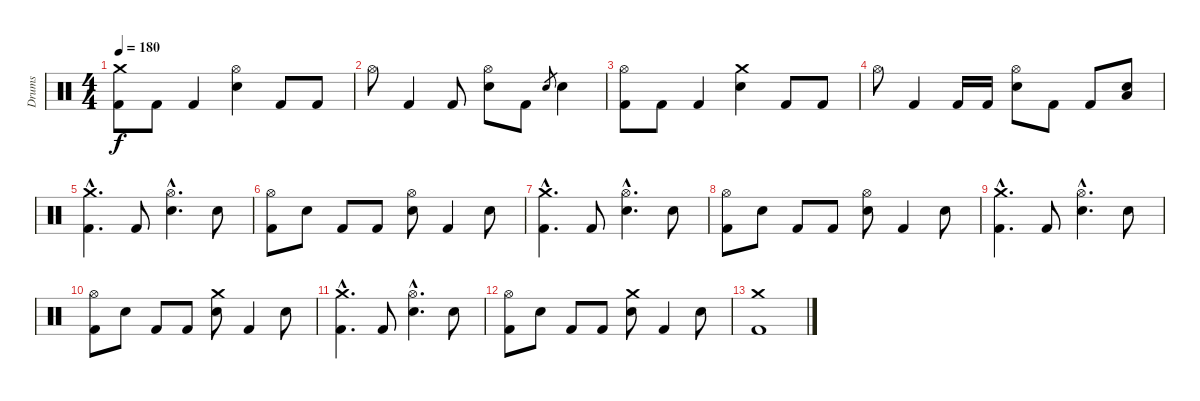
\track ("Drums" "Drums") {instrument percussion}
\staff {score}
\articulation defaults
\ts (4 4)
\tempo 180
\clef neutral
\ks c
("Crash medium (hit)" "Kick (hit) 2").8{dy f} "Kick (hit) 2".8 "Kick (hit) 2".4 ("Hi-Hat (open)" "Electric Snare (hit)").4 "Kick (hit) 2".8 "Kick (hit) 2".8 |
"Hi-Hat (open)".8 "Kick (hit) 2".4 "Kick (hit) 2".8 ("Hi-Hat (open)" "Electric Snare (hit)").8 "Kick (hit) 2".8 "Electric Snare (hit)".8{gr} "Electric Snare (hit)".4 |
("Hi-Hat (open)" "Kick (hit) 2").8 "Kick (hit) 2".8 "Kick (hit) 2".4 ("Crash medium (hit)" "Electric Snare (hit)").4 "Kick (hit) 2".8 "Kick (hit) 2".8 |
"Hi-Hat (open)".8 "Kick (hit) 2".4 "Kick (hit) 2".16 "Kick (hit) 2".16 ("Hi-Hat (open)" "Electric Snare (hit)").8 "Kick (hit) 2".8 "Kick (hit) 2".8 ("Electric Snare (hit)" "Low Tom (hit)").8 |
("Crash medium (hit)"{hac} "Kick (hit) 2"{hac}).4{d} "Kick (hit) 2".8 ("Hi-Hat (open)"{hac} "Electric Snare (hit)"{hac}).4{d} "Electric Snare (hit)".8 |
("Hi-Hat (open)" "Kick (hit) 2").8 "Electric Snare (hit)".8 "Kick (hit) 2".8 "Kick (hit) 2".8 ("Hi-Hat (open)" "Electric Snare (hit)").8 "Kick (hit) 2".4 "Electric Snare (hit)".8 |
("Crash medium (hit)"{hac} "Kick (hit) 2"{hac}).4{d} "Kick (hit) 2".8 ("Hi-Hat (open)"{hac} "Electric Snare (hit)"{hac}).4{d} "Electric Snare (hit)".8 |
("Hi-Hat (open)" "Kick (hit) 2").8 "Electric Snare (hit)".8 "Kick (hit) 2".8 "Kick (hit) 2".8 ("Hi-Hat (open)" "Electric Snare (hit)").8 "Kick (hit) 2".4 "Electric Snare (hit)".8 |
("Crash medium (hit)"{hac} "Kick (hit) 2"{hac}).4{d} "Kick (hit) 2".8 ("Hi-Hat (open)"{hac} "Electric Snare (hit)"{hac}).4{d} "Electric Snare (hit)".8 |
("Hi-Hat (open)" "Kick (hit) 2").8 "Electric Snare (hit)".8 "Kick (hit) 2".8 "Kick (hit) 2".8 ("Crash medium (hit)" "Electric Snare (hit)").8 "Kick (hit) 2".4 "Electric Snare (hit)".8 |
("Crash medium (hit)"{hac} "Kick (hit) 2"{hac}).4{d} "Kick (hit) 2".8 ("Hi-Hat (open)"{hac} "Electric Snare (hit)"{hac}).4{d} "Electric Snare (hit)".8 |
("Hi-Hat (open)" "Kick (hit) 2").8 "Electric Snare (hit)".8 "Kick (hit) 2".8 "Kick (hit) 2".8 ("Crash medium (hit)" "Electric Snare (hit)").8 "Kick (hit) 2".4 "Electric Snare (hit)".8 |
("Crash medium (hit)" "Kick (hit) 2").1
